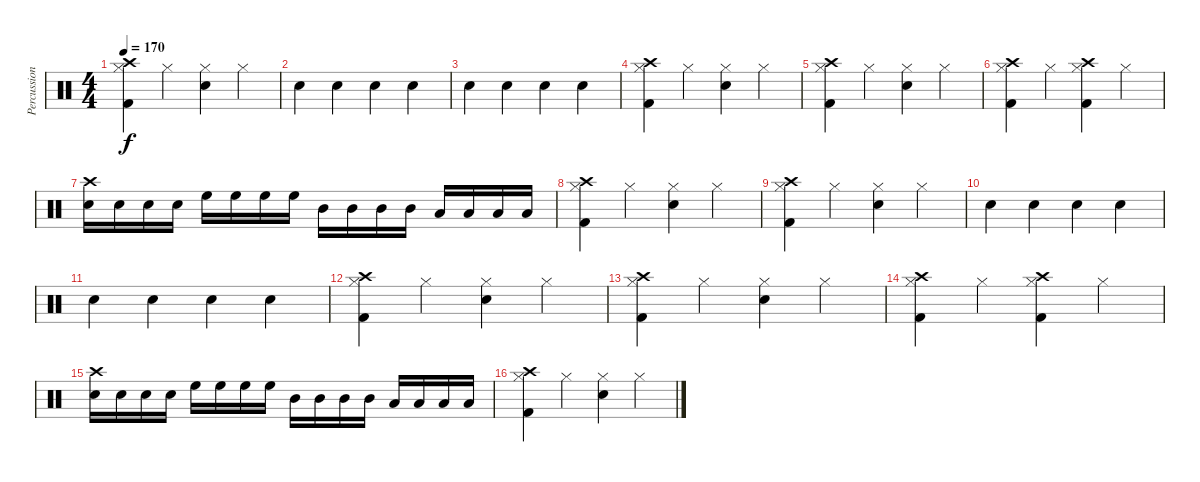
\track ("Percussion" "Percussion") {instrument percussion}
\staff {score}
\articulation defaults
\ts (4 4)
\tempo 170
\clef neutral
\ks c
("Hi-Hat (closed)" "Kick (hit) 2" "Crash high (hit)").4{dy f} "Hi-Hat (closed)".4 ("Hi-Hat (closed)" "Electric Snare (hit)").4 "Hi-Hat (closed)".4 |
"Snare (hit) 2".4 "Snare (hit) 2".4 "Snare (hit) 2".4 "Electric Snare (hit)".4 |
"Snare (hit) 2".4 "Snare (hit) 2".4 "Snare (hit) 2".4 "Electric Snare (hit)".4 |
("Hi-Hat (closed)" "Kick (hit) 2" "Crash high (hit)").4 "Hi-Hat (closed)".4 ("Hi-Hat (closed)" "Electric Snare (hit)").4 "Hi-Hat (closed)".4 |
("Hi-Hat (closed)" "Kick (hit) 2" "Crash high (hit)").4 "Hi-Hat (closed)".4 ("Hi-Hat (closed)" "Electric Snare (hit)").4 "Hi-Hat (closed)".4 |
("Hi-Hat (closed)" "Kick (hit) 2" "Crash high (hit)").4 "Hi-Hat (closed)".4 ("Hi-Hat (closed)" "Kick (hit) 2" "Crash high (hit)").4 "Hi-Hat (closed)".4 |
("Electric Snare (hit)" "Crash high (hit)").16 "Electric Snare (hit)".16 "Electric Snare (hit)".16 "Electric Snare (hit)".16 "High Floor Tom (hit)".16 "High Floor Tom (hit)".16 "High Floor Tom (hit)".16 "High Floor Tom (hit)".16 "Mid Tom (hit)".16 "Mid Tom (hit)".16 "Mid Tom (hit)".16 "Mid Tom (hit)".16 "Low Tom (hit)".16 "Low Tom (hit)".16 "Low Tom (hit)".16 "Low Tom (hit)".16 |
("Hi-Hat (closed)" "Kick (hit) 2" "Crash high (hit)").4 "Hi-Hat (closed)".4 ("Hi-Hat (closed)" "Electric Snare (hit)").4 "Hi-Hat (closed)".4 |
("Hi-Hat (closed)" "Kick (hit) 2" "Crash high (hit)").4 "Hi-Hat (closed)".4 ("Hi-Hat (closed)" "Electric Snare (hit)").4 "Hi-Hat (closed)".4 |
"Snare (hit) 2".4 "Snare (hit) 2".4 "Snare (hit) 2".4 "Electric Snare (hit)".4 |
"Snare (hit) 2".4 "Snare (hit) 2".4 "Snare (hit) 2".4 "Electric Snare (hit)".4 |
("Hi-Hat (closed)" "Kick (hit) 2" "Crash high (hit)").4 "Hi-Hat (closed)".4 ("Hi-Hat (closed)" "Electric Snare (hit)").4 "Hi-Hat (closed)".4 |
("Hi-Hat (closed)" "Kick (hit) 2" "Crash high (hit)").4 "Hi-Hat (closed)".4 ("Hi-Hat (closed)" "Electric Snare (hit)").4 "Hi-Hat (closed)".4 |
("Hi-Hat (closed)" "Kick (hit) 2" "Crash high (hit)").4 "Hi-Hat (closed)".4 ("Hi-Hat (closed)" "Kick (hit) 2" "Crash high (hit)").4 "Hi-Hat (closed)".4 |
("Electric Snare (hit)" "Crash high (hit)").16 "Electric Snare (hit)".16 "Electric Snare (hit)".16 "Electric Snare (hit)".16 "High Floor Tom (hit)".16 "High Floor Tom (hit)".16 "High Floor Tom (hit)".16 "High Floor Tom (hit)".16 "Mid Tom (hit)".16 "Mid Tom (hit)".16 "Mid Tom (hit)".16 "Mid Tom (hit)".16 "Low Tom (hit)".16 "Low Tom (hit)".16 "Low Tom (hit)".16 "Low Tom (hit)".16 |
("Hi-Hat (closed)" "Kick (hit) 2" "Crash high (hit)").4 "Hi-Hat (closed)".4 ("Hi-Hat (closed)" "Electric Snare (hit)").4 "Hi-Hat (closed)".4
